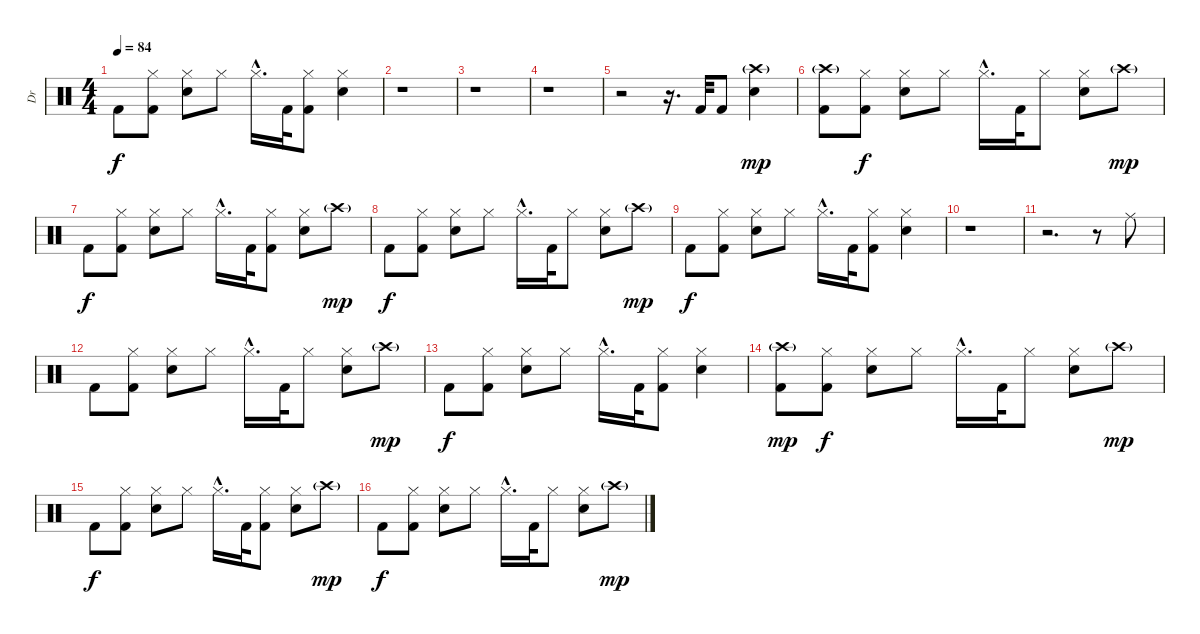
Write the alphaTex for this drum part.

\track ("Dr" "Dr") {instrument percussion}
\staff {score}
\articulation defaults
\ts (4 4)
\tempo 84
\clef neutral
\ks c "Kick (hit) 2".8{dy f}
("Hi-Hat (closed)" "Kick (hit) 2").8 ("Hi-Hat (closed)" "Electric Snare (hit)").8 "Hi-Hat (closed)".8 "Hi-Hat (closed)"{hac}.16{d} "Kick (hit) 2".32 ("Hi-Hat (closed)" "Kick (hit) 2").8 ("Hi-Hat (closed)" "Electric Snare (hit)").4 |
r.1 |
r.1 |
r.1 |
r.2 r.16{d} "Kick (hit) 2".32 "Kick (hit) 2".8 ("Crash high (hit)"{g} "Electric Snare (hit)").4{dy mp} |
("Crash high (hit)"{g} "Kick (hit) 2").8 ("Hi-Hat (closed)" "Kick (hit) 2").8{dy f} ("Hi-Hat (closed)" "Electric Snare (hit)").8 "Hi-Hat (closed)".8 "Hi-Hat (closed)"{hac}.16{d} "Kick (hit) 2".32 "Hi-Hat (closed)".8 ("Hi-Hat (closed)" "Electric Snare (hit)").8 "Crash high (hit)"{g}.8{dy mp} |
"Kick (hit) 2".8{dy f} ("Hi-Hat (closed)" "Kick (hit) 2").8 ("Hi-Hat (closed)" "Electric Snare (hit)").8 "Hi-Hat (closed)".8 "Hi-Hat (closed)"{hac}.16{d} "Kick (hit) 2".32 ("Hi-Hat (closed)" "Kick (hit) 2").8 ("Hi-Hat (closed)" "Electric Snare (hit)").8 "Crash high (hit)"{g}.8{dy mp} |
"Kick (hit) 2".8{dy f} ("Hi-Hat (closed)" "Kick (hit) 2").8 ("Hi-Hat (closed)" "Electric Snare (hit)").8 "Hi-Hat (closed)".8 "Hi-Hat (closed)"{hac}.16{d} "Kick (hit) 2".32 "Hi-Hat (closed)".8 ("Hi-Hat (closed)" "Electric Snare (hit)").8 "Crash high (hit)"{g}.8{dy mp} |
"Kick (hit) 2".8{dy f} ("Hi-Hat (closed)" "Kick (hit) 2").8 ("Hi-Hat (closed)" "Electric Snare (hit)").8 "Hi-Hat (closed)".8 "Hi-Hat (closed)"{hac}.16{d} "Kick (hit) 2".32 ("Hi-Hat (closed)" "Kick (hit) 2").8 ("Hi-Hat (closed)" "Electric Snare (hit)").4 |
r.1 |
r.2{d} r.8 "Ride (middle)".8 |
"Kick (hit) 2".8 ("Hi-Hat (closed)" "Kick (hit) 2").8 ("Hi-Hat (closed)" "Electric Snare (hit)").8 "Hi-Hat (closed)".8 "Hi-Hat (closed)"{hac}.16{d} "Kick (hit) 2".32 "Hi-Hat (closed)".8 ("Hi-Hat (closed)" "Electric Snare (hit)").8 "Crash high (hit)"{g}.8{dy mp} |
"Kick (hit) 2".8{dy f} ("Hi-Hat (closed)" "Kick (hit) 2").8 ("Hi-Hat (closed)" "Electric Snare (hit)").8 "Hi-Hat (closed)".8 "Hi-Hat (closed)"{hac}.16{d} "Kick (hit) 2".32 ("Hi-Hat (closed)" "Kick (hit) 2").8 ("Hi-Hat (closed)" "Electric Snare (hit)").4 |
("Crash high (hit)"{g} "Kick (hit) 2").8{dy mp} ("Hi-Hat (closed)" "Kick (hit) 2").8{dy f} ("Hi-Hat (closed)" "Electric Snare (hit)").8 "Hi-Hat (closed)".8 "Hi-Hat (closed)"{hac}.16{d} "Kick (hit) 2".32 "Hi-Hat (closed)".8 ("Hi-Hat (closed)" "Electric Snare (hit)").8 "Crash high (hit)"{g}.8{dy mp} |
"Kick (hit) 2".8{dy f} ("Hi-Hat (closed)" "Kick (hit) 2").8 ("Hi-Hat (closed)" "Electric Snare (hit)").8 "Hi-Hat (closed)".8 "Hi-Hat (closed)"{hac}.16{d} "Kick (hit) 2".32 ("Hi-Hat (closed)" "Kick (hit) 2").8 ("Hi-Hat (closed)" "Electric Snare (hit)").8 "Crash high (hit)"{g}.8{dy mp} |
"Kick (hit) 2".8{dy f} ("Hi-Hat (closed)" "Kick (hit) 2").8 ("Hi-Hat (closed)" "Electric Snare (hit)").8 "Hi-Hat (closed)".8 "Hi-Hat (closed)"{hac}.16{d} "Kick (hit) 2".32 "Hi-Hat (closed)".8 ("Hi-Hat (closed)" "Electric Snare (hit)").8 "Crash high (hit)"{g}.8{dy mp}
